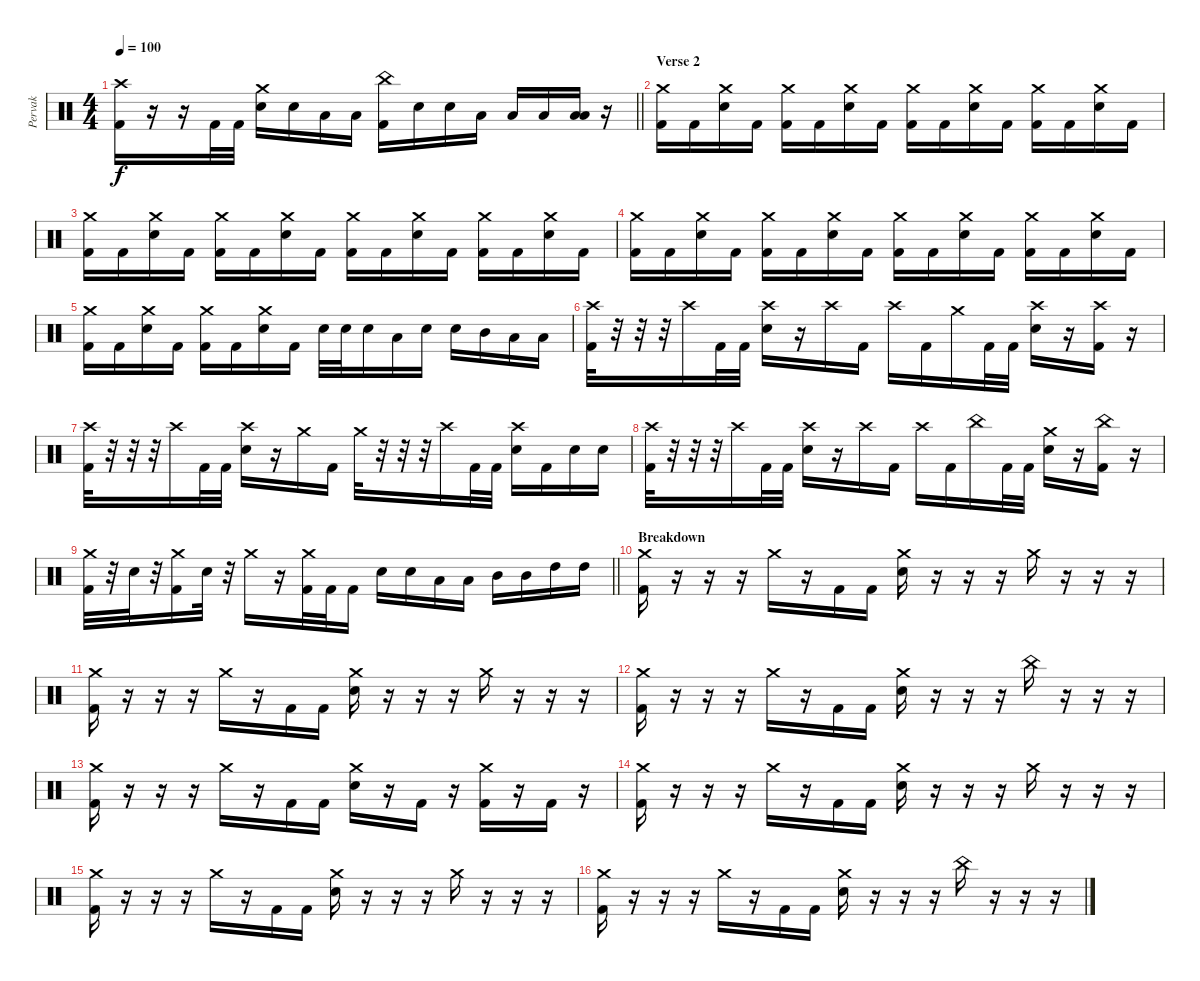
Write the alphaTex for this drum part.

\track ("Pervak" "Pervak") {instrument percussion}
\staff {score}
\articulation defaults
\ts (4 4)
\tempo 100
\clef neutral
\barLineRight lightlight
\ks c
("Crash high (hit)" "Kick (hit) 2").16{dy f} r.16 r.16 "Kick (hit) 2".32 "Kick (hit) 2".32 ("Crash medium (hit)" "Electric Snare (hit)").16 "Electric Snare (hit)".16 "Low Tom (hit)".16 "Low Tom (hit)".16 ("China (hit)" "Kick (hit) 2").16 "Electric Snare (hit)".16 "Electric Snare (hit)".16 "Low Tom (hit)".16 "Low Tom (hit)".16 "Low Tom (hit)".16 ("Low Tom (hit)" "Low Floor Tom (hit)").16 r.16 |
\section ("" "Verse 2")
("Crash medium (hit)" "Kick (hit) 2").16 "Kick (hit) 2".16 ("Crash medium (hit)" "Electric Snare (hit)").16 "Kick (hit) 2".16 ("Crash medium (hit)" "Kick (hit) 2").16 "Kick (hit) 2".16 ("Crash medium (hit)" "Electric Snare (hit)").16 "Kick (hit) 2".16 ("Crash medium (hit)" "Kick (hit) 2").16 "Kick (hit) 2".16 ("Crash medium (hit)" "Electric Snare (hit)").16 "Kick (hit) 2".16 ("Crash medium (hit)" "Kick (hit) 2").16 "Kick (hit) 2".16 ("Crash medium (hit)" "Electric Snare (hit)").16 "Kick (hit) 2".16 |
("Crash medium (hit)" "Kick (hit) 2").16 "Kick (hit) 2".16 ("Crash medium (hit)" "Electric Snare (hit)").16 "Kick (hit) 2".16 ("Crash medium (hit)" "Kick (hit) 2").16 "Kick (hit) 2".16 ("Crash medium (hit)" "Electric Snare (hit)").16 "Kick (hit) 2".16 ("Crash medium (hit)" "Kick (hit) 2").16 "Kick (hit) 2".16 ("Crash medium (hit)" "Electric Snare (hit)").16 "Kick (hit) 2".16 ("Crash medium (hit)" "Kick (hit) 2").16 "Kick (hit) 2".16 ("Crash medium (hit)" "Electric Snare (hit)").16 "Kick (hit) 2".16 |
("Crash medium (hit)" "Kick (hit) 2").16 "Kick (hit) 2".16 ("Crash medium (hit)" "Electric Snare (hit)").16 "Kick (hit) 2".16 ("Crash medium (hit)" "Kick (hit) 2").16 "Kick (hit) 2".16 ("Crash medium (hit)" "Electric Snare (hit)").16 "Kick (hit) 2".16 ("Crash medium (hit)" "Kick (hit) 2").16 "Kick (hit) 2".16 ("Crash medium (hit)" "Electric Snare (hit)").16 "Kick (hit) 2".16 ("Crash medium (hit)" "Kick (hit) 2").16 "Kick (hit) 2".16 ("Crash medium (hit)" "Electric Snare (hit)").16 "Kick (hit) 2".16 |
("Crash medium (hit)" "Kick (hit) 2").16 "Kick (hit) 2".16 ("Crash medium (hit)" "Electric Snare (hit)").16 "Kick (hit) 2".16 ("Crash medium (hit)" "Kick (hit) 2").16 "Kick (hit) 2".16 ("Crash medium (hit)" "Electric Snare (hit)").16 "Kick (hit) 2".16 "Electric Snare (hit)".32 "Electric Snare (hit)".32 "Electric Snare (hit)".16 "Low Tom (hit)".16 "Electric Snare (hit)".16 "Electric Snare (hit)".16 "Mid Tom (hit)".16 "Low Tom (hit)".16 "Low Tom (hit)".16 |
("Crash high (hit)" "Kick (hit) 2").32 r.32 r.32 r.32 "Crash high (hit)".16 "Kick (hit) 2".32 "Kick (hit) 2".32 ("Crash high (hit)" "Electric Snare (hit)").16 r.16 "Crash high (hit)".16 "Kick (hit) 2".16 "Crash high (hit)".16 "Kick (hit) 2".16 "Crash medium (hit)".16 "Kick (hit) 2".32 "Kick (hit) 2".32 ("Crash high (hit)" "Electric Snare (hit)").16 r.16 ("Crash high (hit)" "Kick (hit) 2").16 r.16 |
("Crash high (hit)" "Kick (hit) 2").32 r.32 r.32 r.32 "Crash high (hit)".16 "Kick (hit) 2".32 "Kick (hit) 2".32 ("Crash high (hit)" "Electric Snare (hit)").16 r.16 "Crash medium (hit)".16 "Kick (hit) 2".16 "Crash medium (hit)".32 r.32 r.32 r.32 "Crash high (hit)".16 "Kick (hit) 2".32 "Kick (hit) 2".32 ("Crash high (hit)" "Electric Snare (hit)").16 "Kick (hit) 2".16 "Electric Snare (hit)".16 "Electric Snare (hit)".16 |
("Crash high (hit)" "Kick (hit) 2").32 r.32 r.32 r.32 "Crash high (hit)".16 "Kick (hit) 2".32 "Kick (hit) 2".32 ("Crash high (hit)" "Electric Snare (hit)").16 r.16 "Crash high (hit)".16 "Kick (hit) 2".16 "Crash high (hit)".16 "Kick (hit) 2".16 "China (hit)".16 "Kick (hit) 2".32 "Kick (hit) 2".32 ("Crash medium (hit)" "Electric Snare (hit)").16 r.16 ("China (hit)" "Kick (hit) 2").16 r.16 |
\barLineRight lightlight
("Crash medium (hit)" "Kick (hit) 2").32 r.32 "Electric Snare (hit)".32 r.32 ("Crash medium (hit)" "Kick (hit) 2").16 "Electric Snare (hit)".32 r.32 "Crash medium (hit)".16 r.16 ("Crash medium (hit)" "Kick (hit) 2").32 "Kick (hit) 2".32 "Kick (hit) 2".16 "Electric Snare (hit)".16 "Electric Snare (hit)".16 "Low Tom (hit)".16 "Low Tom (hit)".16 "Mid Tom (hit)".16 "Mid Tom (hit)".16 "High Tom (hit)".16 "High Tom (hit)".16 |
\section ("" "Breakdown")
("Crash medium (hit)" "Kick (hit) 2").16 r.16 r.16 r.16 "Crash medium (hit)".16 r.16 "Kick (hit) 2".16 "Kick (hit) 2".16 ("Crash medium (hit)" "Electric Snare (hit)").16 r.16 r.16 r.16 "Crash medium (hit)".16 r.16 r.16 r.16 |
("Crash medium (hit)" "Kick (hit) 2").16 r.16 r.16 r.16 "Crash medium (hit)".16 r.16 "Kick (hit) 2".16 "Kick (hit) 2".16 ("Crash medium (hit)" "Electric Snare (hit)").16 r.16 r.16 r.16 "Crash medium (hit)".16 r.16 r.16 r.16 |
("Crash medium (hit)" "Kick (hit) 2").16 r.16 r.16 r.16 "Crash medium (hit)".16 r.16 "Kick (hit) 2".16 "Kick (hit) 2".16 ("Crash medium (hit)" "Electric Snare (hit)").16 r.16 r.16 r.16 "China (hit)".16 r.16 r.16 r.16 |
("Crash medium (hit)" "Kick (hit) 2").16 r.16 r.16 r.16 "Crash medium (hit)".16 r.16 "Kick (hit) 2".16 "Kick (hit) 2".16 ("Crash medium (hit)" "Electric Snare (hit)").16 r.16 "Kick (hit) 2".16 r.16 ("Crash medium (hit)" "Kick (hit) 2").16 r.16 "Kick (hit) 2".16 r.16 |
("Crash medium (hit)" "Kick (hit) 2").16 r.16 r.16 r.16 "Crash medium (hit)".16 r.16 "Kick (hit) 2".16 "Kick (hit) 2".16 ("Crash medium (hit)" "Electric Snare (hit)").16 r.16 r.16 r.16 "Crash medium (hit)".16 r.16 r.16 r.16 |
("Crash medium (hit)" "Kick (hit) 2").16 r.16 r.16 r.16 "Crash medium (hit)".16 r.16 "Kick (hit) 2".16 "Kick (hit) 2".16 ("Crash medium (hit)" "Electric Snare (hit)").16 r.16 r.16 r.16 "Crash medium (hit)".16 r.16 r.16 r.16 |
("Crash medium (hit)" "Kick (hit) 2").16 r.16 r.16 r.16 "Crash medium (hit)".16 r.16 "Kick (hit) 2".16 "Kick (hit) 2".16 ("Crash medium (hit)" "Electric Snare (hit)").16 r.16 r.16 r.16 "China (hit)".16 r.16 r.16 r.16
